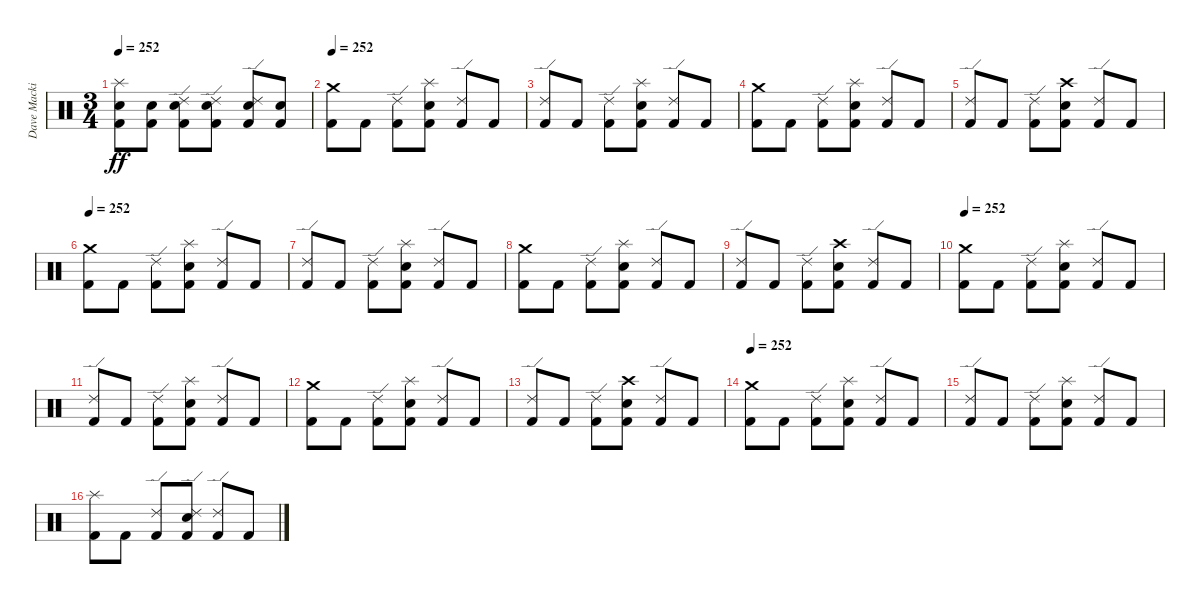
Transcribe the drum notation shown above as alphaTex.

\track ("Dave Mackintosh" "Dave Macki") {instrument percussion}
\staff {score}
\articulation defaults
\ts (3 4)
\tempo 252
\clef neutral
\ks c
("Splash (hit)" "Electric Snare (hit)" "Kick (hit) 2").8{dy ff} ("Electric Snare (hit)" "Kick (hit) 2").8 ("Ride (edge) 2" "Electric Snare (hit)" "Kick (hit) 2").8 ("Ride (edge) 2" "Electric Snare (hit)" "Kick (hit) 2").8 ("Ride (edge) 2" "Electric Snare (hit)" "Kick (hit) 2").8 ("Electric Snare (hit)" "Kick (hit) 2").8 |
\tempo 252
("Crash medium (hit)" "Kick (hit) 2").8 "Kick (hit) 2".8 ("Ride (edge) 2" "Kick (hit) 2").8 ("Splash (hit)" "Electric Snare (hit)" "Kick (hit) 2").8 ("Ride (edge) 2" "Kick (hit) 2").8 "Kick (hit) 2".8 |
("Ride (edge) 2" "Kick (hit) 2").8 "Kick (hit) 2".8 ("Ride (edge) 2" "Kick (hit) 2").8 ("Splash (hit)" "Electric Snare (hit)" "Kick (hit) 2").8 ("Ride (edge) 2" "Kick (hit) 2").8 "Kick (hit) 2".8 |
("Crash medium (hit)" "Kick (hit) 2").8 "Kick (hit) 2".8 ("Ride (edge) 2" "Kick (hit) 2").8 ("Splash (hit)" "Electric Snare (hit)" "Kick (hit) 2").8 ("Ride (edge) 2" "Kick (hit) 2").8 "Kick (hit) 2".8 |
("Ride (edge) 2" "Kick (hit) 2").8 "Kick (hit) 2".8 ("Ride (edge) 2" "Kick (hit) 2").8 ("Crash high (hit)" "Electric Snare (hit)" "Kick (hit) 2").8 ("Ride (edge) 2" "Kick (hit) 2").8 "Kick (hit) 2".8 |
\tempo 252
("Crash medium (hit)" "Kick (hit) 2").8 "Kick (hit) 2".8 ("Ride (edge) 2" "Kick (hit) 2").8 ("Splash (hit)" "Electric Snare (hit)" "Kick (hit) 2").8 ("Ride (edge) 2" "Kick (hit) 2").8 "Kick (hit) 2".8 |
("Ride (edge) 2" "Kick (hit) 2").8 "Kick (hit) 2".8 ("Ride (edge) 2" "Kick (hit) 2").8 ("Splash (hit)" "Electric Snare (hit)" "Kick (hit) 2").8 ("Ride (edge) 2" "Kick (hit) 2").8 "Kick (hit) 2".8 |
("Crash medium (hit)" "Kick (hit) 2").8 "Kick (hit) 2".8 ("Ride (edge) 2" "Kick (hit) 2").8 ("Splash (hit)" "Electric Snare (hit)" "Kick (hit) 2").8 ("Ride (edge) 2" "Kick (hit) 2").8 "Kick (hit) 2".8 |
("Ride (edge) 2" "Kick (hit) 2").8 "Kick (hit) 2".8 ("Ride (edge) 2" "Kick (hit) 2").8 ("Crash high (hit)" "Electric Snare (hit)" "Kick (hit) 2").8 ("Ride (edge) 2" "Kick (hit) 2").8 "Kick (hit) 2".8 |
\tempo 252
("Crash medium (hit)" "Kick (hit) 2").8 "Kick (hit) 2".8 ("Ride (edge) 2" "Kick (hit) 2").8 ("Splash (hit)" "Electric Snare (hit)" "Kick (hit) 2").8 ("Ride (edge) 2" "Kick (hit) 2").8 "Kick (hit) 2".8 |
("Ride (edge) 2" "Kick (hit) 2").8 "Kick (hit) 2".8 ("Ride (edge) 2" "Kick (hit) 2").8 ("Splash (hit)" "Electric Snare (hit)" "Kick (hit) 2").8 ("Ride (edge) 2" "Kick (hit) 2").8 "Kick (hit) 2".8 |
("Crash medium (hit)" "Kick (hit) 2").8 "Kick (hit) 2".8 ("Ride (edge) 2" "Kick (hit) 2").8 ("Splash (hit)" "Electric Snare (hit)" "Kick (hit) 2").8 ("Ride (edge) 2" "Kick (hit) 2").8 "Kick (hit) 2".8 |
("Ride (edge) 2" "Kick (hit) 2").8 "Kick (hit) 2".8 ("Ride (edge) 2" "Kick (hit) 2").8 ("Crash high (hit)" "Electric Snare (hit)" "Kick (hit) 2").8 ("Ride (edge) 2" "Kick (hit) 2").8 "Kick (hit) 2".8 |
\tempo 252
("Crash medium (hit)" "Kick (hit) 2").8 "Kick (hit) 2".8 ("Ride (edge) 2" "Kick (hit) 2").8 ("Splash (hit)" "Electric Snare (hit)" "Kick (hit) 2").8 ("Ride (edge) 2" "Kick (hit) 2").8 "Kick (hit) 2".8 |
("Ride (edge) 2" "Kick (hit) 2").8 "Kick (hit) 2".8 ("Ride (edge) 2" "Kick (hit) 2").8 ("Splash (hit)" "Electric Snare (hit)" "Kick (hit) 2").8 ("Ride (edge) 2" "Kick (hit) 2").8 "Kick (hit) 2".8 |
("Splash (hit)" "Kick (hit) 2").8 "Kick (hit) 2".8 ("Ride (edge) 2" "Kick (hit) 2").8 ("Ride (edge) 2" "Electric Snare (hit)" "Kick (hit) 2").8 ("Ride (edge) 2" "Kick (hit) 2").8 "Kick (hit) 2".8
